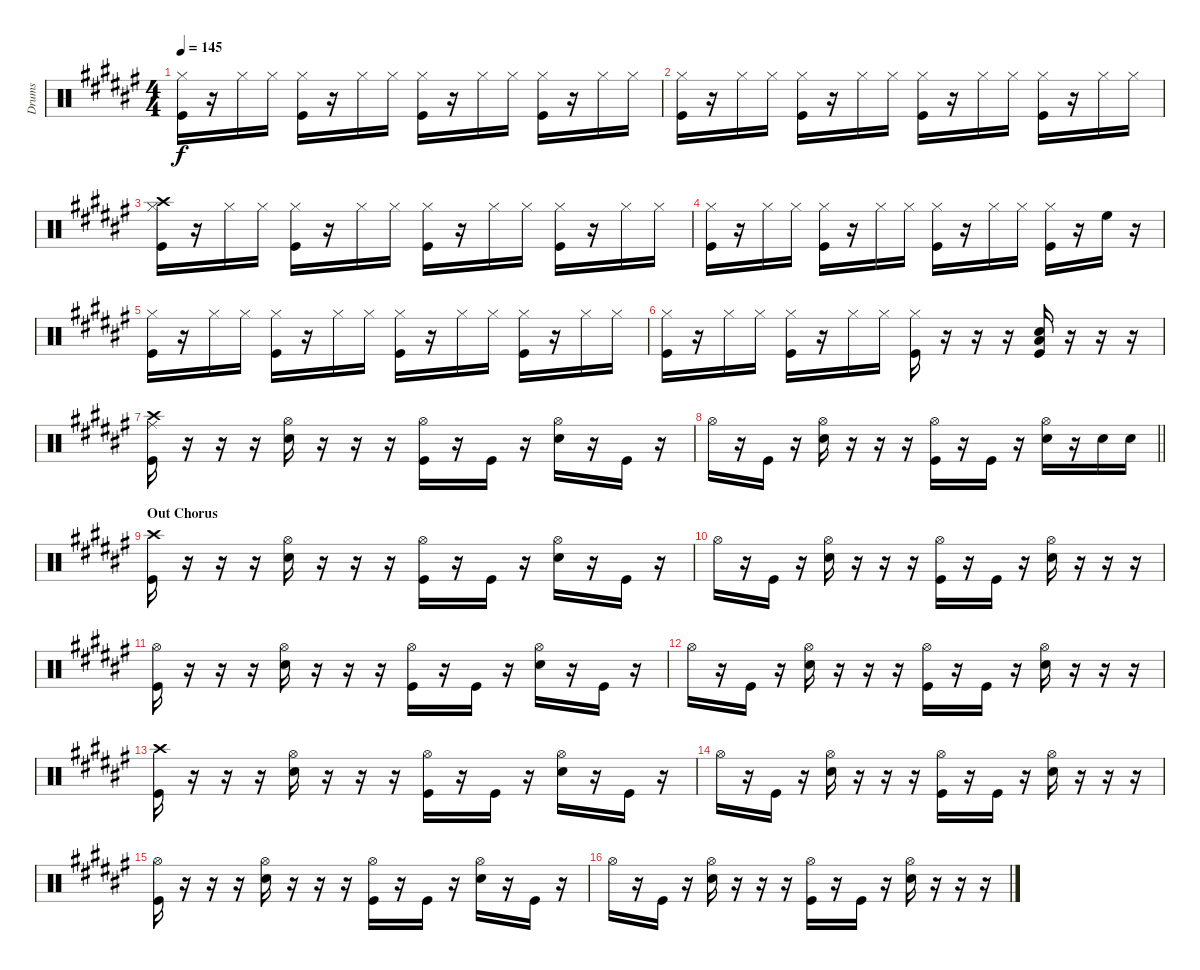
\track ("Drums" "Drums") {instrument percussion}
\staff {score}
\articulation defaults
\ts (4 4)
\tempo 145
\clef neutral
\ks f#
("Hi-Hat (closed)" "Kick (hit)").16{dy f} r.16 "Hi-Hat (closed)".16 "Hi-Hat (closed)".16 ("Hi-Hat (closed)" "Kick (hit)").16 r.16 "Hi-Hat (closed)".16 "Hi-Hat (closed)".16 ("Hi-Hat (closed)" "Kick (hit)").16 r.16 "Hi-Hat (closed)".16 "Hi-Hat (closed)".16 ("Hi-Hat (closed)" "Kick (hit)").16 r.16 "Hi-Hat (closed)".16 "Hi-Hat (closed)".16 |
("Hi-Hat (closed)" "Kick (hit)").16 r.16 "Hi-Hat (closed)".16 "Hi-Hat (closed)".16 ("Hi-Hat (closed)" "Kick (hit)").16 r.16 "Hi-Hat (closed)".16 "Hi-Hat (closed)".16 ("Hi-Hat (closed)" "Kick (hit)").16 r.16 "Hi-Hat (closed)".16 "Hi-Hat (closed)".16 ("Hi-Hat (closed)" "Kick (hit)").16 r.16 "Hi-Hat (closed)".16 "Hi-Hat (closed)".16 |
("Hi-Hat (closed)" "Kick (hit)" "Crash high (hit)").16 r.16 "Hi-Hat (closed)".16 "Hi-Hat (closed)".16 ("Hi-Hat (closed)" "Kick (hit)").16 r.16 "Hi-Hat (closed)".16 "Hi-Hat (closed)".16 ("Hi-Hat (closed)" "Kick (hit)").16 r.16 "Hi-Hat (closed)".16 "Hi-Hat (closed)".16 ("Hi-Hat (closed)" "Kick (hit)").16 r.16 "Hi-Hat (closed)".16 "Hi-Hat (closed)".16 |
("Hi-Hat (closed)" "Kick (hit)").16 r.16 "Hi-Hat (closed)".16 "Hi-Hat (closed)".16 ("Hi-Hat (closed)" "Kick (hit)").16 r.16 "Hi-Hat (closed)".16 "Hi-Hat (closed)".16 ("Hi-Hat (closed)" "Kick (hit)").16 r.16 "Hi-Hat (closed)".16 "Hi-Hat (closed)".16 ("Hi-Hat (closed)" "Kick (hit)").16 r.16 "High Floor Tom (hit)".16 r.16 |
("Hi-Hat (closed)" "Kick (hit)").16 r.16 "Hi-Hat (closed)".16 "Hi-Hat (closed)".16 ("Hi-Hat (closed)" "Kick (hit)").16 r.16 "Hi-Hat (closed)".16 "Hi-Hat (closed)".16 ("Hi-Hat (closed)" "Kick (hit)").16 r.16 "Hi-Hat (closed)".16 "Hi-Hat (closed)".16 ("Hi-Hat (closed)" "Kick (hit)").16 r.16 "Hi-Hat (closed)".16 "Hi-Hat (closed)".16 |
("Hi-Hat (closed)" "Kick (hit)").16 r.16 "Hi-Hat (closed)".16 "Hi-Hat (closed)".16 ("Hi-Hat (closed)" "Kick (hit)").16 r.16 "Hi-Hat (closed)".16 "Hi-Hat (closed)".16 ("Hi-Hat (closed)" "Kick (hit)").16 r.16 r.16 r.16 ("Snare (hit) 2" "Kick (hit)" "Low Floor Tom (hit)").16 r.16 r.16 r.16 |
("Ride (middle)" "Kick (hit)" "Crash high (hit)").16 r.16 r.16 r.16 ("Hi-Hat (open)" "Snare (hit) 2").16 r.16 r.16 r.16 ("Hi-Hat (open)" "Kick (hit)").16 r.16 "Kick (hit)".16 r.16 ("Hi-Hat (open)" "Snare (hit) 2").16 r.16 "Kick (hit)".16 r.16 |
\barLineRight lightlight "Hi-Hat (open)".16
r.16 "Kick (hit)".16 r.16 ("Hi-Hat (open)" "Snare (hit) 2").16 r.16 r.16 r.16 ("Hi-Hat (open)" "Kick (hit)").16 r.16 "Kick (hit)".16 r.16 ("Hi-Hat (open)" "Snare (hit) 2").16 r.16 "Snare (hit) 2".16 "Snare (hit) 2".16 |
\section ("" "Out Chorus")
("Kick (hit)" "Crash high (hit)").16 r.16 r.16 r.16 ("Hi-Hat (open)" "Snare (hit) 2").16 r.16 r.16 r.16 ("Hi-Hat (open)" "Kick (hit)").16 r.16 "Kick (hit)".16 r.16 ("Hi-Hat (open)" "Snare (hit) 2").16 r.16 "Kick (hit)".16 r.16 |
"Hi-Hat (open)".16 r.16 "Kick (hit)".16 r.16 ("Hi-Hat (open)" "Snare (hit) 2").16 r.16 r.16 r.16 ("Hi-Hat (open)" "Kick (hit)").16 r.16 "Kick (hit)".16 r.16 ("Hi-Hat (open)" "Snare (hit) 2").16 r.16 r.16 r.16 |
("Hi-Hat (open)" "Kick (hit)").16 r.16 r.16 r.16 ("Hi-Hat (open)" "Snare (hit) 2").16 r.16 r.16 r.16 ("Hi-Hat (open)" "Kick (hit)").16 r.16 "Kick (hit)".16 r.16 ("Hi-Hat (open)" "Snare (hit) 2").16 r.16 "Kick (hit)".16 r.16 |
"Hi-Hat (open)".16 r.16 "Kick (hit)".16 r.16 ("Hi-Hat (open)" "Snare (hit) 2").16 r.16 r.16 r.16 ("Hi-Hat (open)" "Kick (hit)").16 r.16 "Kick (hit)".16 r.16 ("Hi-Hat (open)" "Snare (hit) 2").16 r.16 r.16 r.16 |
("Kick (hit)" "Crash high (hit)").16 r.16 r.16 r.16 ("Hi-Hat (open)" "Snare (hit) 2").16 r.16 r.16 r.16 ("Hi-Hat (open)" "Kick (hit)").16 r.16 "Kick (hit)".16 r.16 ("Hi-Hat (open)" "Snare (hit) 2").16 r.16 "Kick (hit)".16 r.16 |
"Hi-Hat (open)".16 r.16 "Kick (hit)".16 r.16 ("Hi-Hat (open)" "Snare (hit) 2").16 r.16 r.16 r.16 ("Hi-Hat (open)" "Kick (hit)").16 r.16 "Kick (hit)".16 r.16 ("Hi-Hat (open)" "Snare (hit) 2").16 r.16 r.16 r.16 |
("Hi-Hat (open)" "Kick (hit)").16 r.16 r.16 r.16 ("Hi-Hat (open)" "Snare (hit) 2").16 r.16 r.16 r.16 ("Hi-Hat (open)" "Kick (hit)").16 r.16 "Kick (hit)".16 r.16 ("Hi-Hat (open)" "Snare (hit) 2").16 r.16 "Kick (hit)".16 r.16 |
"Hi-Hat (open)".16 r.16 "Kick (hit)".16 r.16 ("Hi-Hat (open)" "Snare (hit) 2").16 r.16 r.16 r.16 ("Hi-Hat (open)" "Kick (hit)").16 r.16 "Kick (hit)".16 r.16 ("Hi-Hat (open)" "Snare (hit) 2").16 r.16 r.16 r.16
